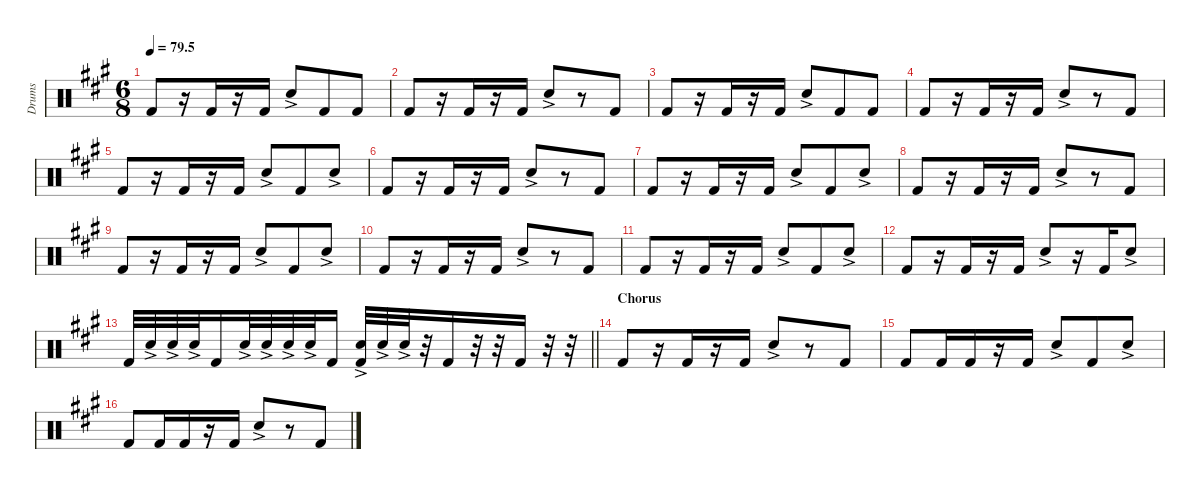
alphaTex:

\defaultSystemsLayout 4
\hideDynamics
\bracketExtendMode nobrackets
\otherSystemsTrackNameOrientation horizontal
\track ("F&S" "Drums") {instrument percussion}
\staff {score}
\articulation defaults
\ts (6 8)
\tempo
79.5
\accidentals auto
\clef neutral
\ottava regular
\simile none
\scale
0.333333
\ks a "Kick (hit) 2"{acc forcenatural}.8{dy f}
r.16 "Kick (hit) 2"{acc forcenatural}.16 r.16 "Kick (hit) 2"{acc forcenatural}.16 "Snare (hit) 2"{ac acc forcenatural}.8 "Kick (hit) 2"{acc forcenatural}.8 "Kick (hit) 2"{acc forcenatural}.8 |
\scale
0.333333 "Kick (hit) 2"{acc forcenatural}.8 r.16 "Kick (hit) 2"{acc forcenatural}.16 r.16 "Kick (hit) 2"{acc forcenatural}.16 "Snare (hit) 2"{ac acc forcenatural}.8 r.8 "Kick (hit) 2"{acc forcenatural}.8 |
\scale
0.333333 "Kick (hit) 2"{acc forcenatural}.8 r.16 "Kick (hit) 2"{acc forcenatural}.16 r.16 "Kick (hit) 2"{acc forcenatural}.16 "Snare (hit) 2"{ac acc forcenatural}.8 "Kick (hit) 2"{acc forcenatural}.8 "Kick (hit) 2"{acc forcenatural}.8 |
\scale
0.333333 "Kick (hit) 2"{acc forcenatural}.8 r.16 "Kick (hit) 2"{acc forcenatural}.16 r.16 "Kick (hit) 2"{acc forcenatural}.16 "Snare (hit) 2"{ac acc forcenatural}.8 r.8 "Kick (hit) 2"{acc forcenatural}.8 |
\scale
0.333333 "Kick (hit) 2"{acc forcenatural}.8 r.16 "Kick (hit) 2"{acc forcenatural}.16 r.16 "Kick (hit) 2"{acc forcenatural}.16 "Snare (hit) 2"{ac acc forcenatural}.8 "Kick (hit) 2"{acc forcenatural}.8 "Snare (hit) 2"{ac acc forcenatural}.8 |
\scale
0.333333 "Kick (hit) 2"{acc forcenatural}.8 r.16 "Kick (hit) 2"{acc forcenatural}.16 r.16 "Kick (hit) 2"{acc forcenatural}.16 "Snare (hit) 2"{ac acc forcenatural}.8 r.8 "Kick (hit) 2"{acc forcenatural}.8 |
\scale
0.333333 "Kick (hit) 2"{acc forcenatural}.8 r.16 "Kick (hit) 2"{acc forcenatural}.16 r.16 "Kick (hit) 2"{acc forcenatural}.16 "Snare (hit) 2"{ac acc forcenatural}.8 "Kick (hit) 2"{acc forcenatural}.8 "Snare (hit) 2"{ac acc forcenatural}.8 |
\scale
0.333333 "Kick (hit) 2"{acc forcenatural}.8 r.16 "Kick (hit) 2"{acc forcenatural}.16 r.16 "Kick (hit) 2"{acc forcenatural}.16 "Snare (hit) 2"{ac acc forcenatural}.8 r.8 "Kick (hit) 2"{acc forcenatural}.8 |
\scale
0.333333 "Kick (hit) 2"{acc forcenatural}.8 r.16 "Kick (hit) 2"{acc forcenatural}.16 r.16 "Kick (hit) 2"{acc forcenatural}.16 "Snare (hit) 2"{ac acc forcenatural}.8 "Kick (hit) 2"{acc forcenatural}.8 "Snare (hit) 2"{ac acc forcenatural}.8 |
\scale
0.333333 "Kick (hit) 2"{acc forcenatural}.8 r.16 "Kick (hit) 2"{acc forcenatural}.16 r.16 "Kick (hit) 2"{acc forcenatural}.16 "Snare (hit) 2"{ac acc forcenatural}.8 r.8 "Kick (hit) 2"{acc forcenatural}.8 |
\scale
0.333333 "Kick (hit) 2"{acc forcenatural}.8 r.16 "Kick (hit) 2"{acc forcenatural}.16 r.16 "Kick (hit) 2"{acc forcenatural}.16 "Snare (hit) 2"{ac acc forcenatural}.8 "Kick (hit) 2"{acc forcenatural}.8 "Snare (hit) 2"{ac acc forcenatural}.8 |
\scale
0.333333 "Kick (hit) 2"{acc forcenatural}.8 r.16 "Kick (hit) 2"{acc forcenatural}.16 r.16 "Kick (hit) 2"{acc forcenatural}.16 "Snare (hit) 2"{ac acc forcenatural}.8 r.16 "Kick (hit) 2"{acc forcenatural}.16 "Snare (hit) 2"{ac acc forcenatural}.8 |
\scale
0.333333
\barLineRight lightlight "Kick (hit) 2"{acc forcenatural}.32 "Snare (hit) 2"{ac acc forcenatural}.32 "Snare (hit) 2"{ac acc forcenatural}.32 "Snare (hit) 2"{ac acc forcenatural}.32 "Kick (hit) 2"{acc forcenatural}.16 "Snare (hit) 2"{ac acc forcenatural}.32 "Snare (hit) 2"{ac acc forcenatural}.32 "Snare (hit) 2"{ac acc forcenatural}.32 "Snare (hit) 2"{ac acc forcenatural}.32 "Kick (hit) 2"{acc forcenatural}.16
("Snare (hit) 2"{ac acc forcenatural} "Kick (hit) 2"{acc forcenatural}).32 "Snare (hit) 2"{ac acc forcenatural}.32 "Snare (hit) 2"{ac acc forcenatural}.32 r.32 "Kick (hit) 2"{acc forcenatural}.16 r.32 r.32 "Kick (hit) 2"{acc forcenatural}.16 r.32 r.32 |
\section ("" "Chorus")
\scale
0.333333 "Kick (hit) 2"{acc forcenatural}.8 r.16 "Kick (hit) 2"{acc forcenatural}.16 r.16 "Kick (hit) 2"{acc forcenatural}.16 "Snare (hit) 2"{ac acc forcenatural}.8 r.8 "Kick (hit) 2"{acc forcenatural}.8 |
\scale
0.333333 "Kick (hit) 2"{acc forcenatural}.8 "Kick (hit) 2"{acc forcenatural}.16 "Kick (hit) 2"{acc forcenatural}.16 r.16 "Kick (hit) 2"{acc forcenatural}.16 "Snare (hit) 2"{ac acc forcenatural}.8 "Kick (hit) 2"{acc forcenatural}.8 "Snare (hit) 2"{ac acc forcenatural}.8 |
\scale
0.333333 "Kick (hit) 2"{acc forcenatural}.8 "Kick (hit) 2"{acc forcenatural}.16 "Kick (hit) 2"{acc forcenatural}.16 r.16 "Kick (hit) 2"{acc forcenatural}.16 "Snare (hit) 2"{ac acc forcenatural}.8 r.8 "Kick (hit) 2"{acc forcenatural}.8
